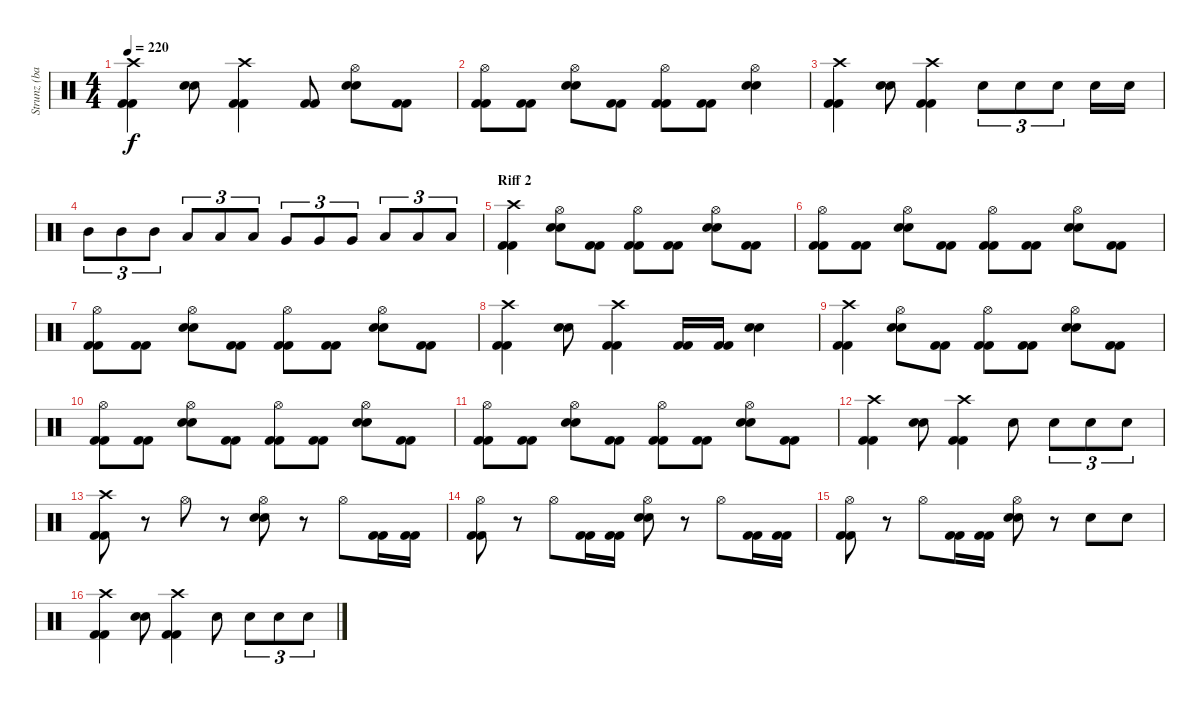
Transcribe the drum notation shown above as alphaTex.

\track ("Strunz (bateria)" "Strunz (ba") {instrument percussion}
\staff {score}
\articulation defaults
\ts (4 4)
\tempo 220
\clef neutral
\ks c
("Crash high (hit)" "Kick (hit) 2" "Kick (hit) 2").4{dy f} ("Snare (hit) 2" "Snare (hit) 2").8 ("Crash high (hit)" "Kick (hit) 2" "Kick (hit) 2").4 ("Kick (hit) 2" "Kick (hit) 2").8 ("Hi-Hat (open)" "Snare (hit) 2" "Snare (hit) 2").8 ("Kick (hit) 2" "Kick (hit) 2").8 |
("Hi-Hat (open)" "Kick (hit) 2" "Kick (hit) 2").8 ("Kick (hit) 2" "Kick (hit) 2").8 ("Hi-Hat (open)" "Snare (hit) 2" "Snare (hit) 2").8 ("Kick (hit) 2" "Kick (hit) 2").8 ("Hi-Hat (open)" "Kick (hit) 2" "Kick (hit) 2").8 ("Kick (hit) 2" "Kick (hit) 2").8 ("Hi-Hat (open)" "Snare (hit) 2" "Snare (hit) 2").4 |
("Crash high (hit)" "Kick (hit) 2" "Kick (hit) 2").4 ("Snare (hit) 2" "Snare (hit) 2").8 ("Crash high (hit)" "Kick (hit) 2" "Kick (hit) 2").4 "Snare (hit) 2".8{tu (3 2)} "Snare (hit) 2".8{tu (3 2)} "Snare (hit) 2".8{tu (3 2)} "Snare (hit) 2".16 "Snare (hit) 2".16 |
"Mid Tom (hit)".8{tu (3 2)} "Mid Tom (hit)".8{tu (3 2)} "Mid Tom (hit)".8{tu (3 2)} "Low Tom (hit)".8{tu (3 2)} "Low Tom (hit)".8{tu (3 2)} "Low Tom (hit)".8{tu (3 2)} "Very Low Tom (hit)".8{tu (3 2)} "Very Low Tom (hit)".8{tu (3 2)} "Very Low Tom (hit)".8{tu (3 2)} "Low Floor Tom (hit)".8{tu (3 2)} "Low Floor Tom (hit)".8{tu (3 2)} "Low Floor Tom (hit)".8{tu (3 2)} |
\section ("" "Riff 2")
("Crash high (hit)" "Kick (hit) 2" "Kick (hit) 2").4 ("Hi-Hat (open)" "Snare (hit) 2" "Snare (hit) 2").8 ("Kick (hit) 2" "Kick (hit) 2").8 ("Hi-Hat (open)" "Kick (hit) 2" "Kick (hit) 2").8 ("Kick (hit) 2" "Kick (hit) 2").8 ("Hi-Hat (open)" "Snare (hit) 2" "Snare (hit) 2").8 ("Kick (hit) 2" "Kick (hit) 2").8 |
("Hi-Hat (open)" "Kick (hit) 2" "Kick (hit) 2").8 ("Kick (hit) 2" "Kick (hit) 2").8 ("Hi-Hat (open)" "Snare (hit) 2" "Snare (hit) 2").8 ("Kick (hit) 2" "Kick (hit) 2").8 ("Hi-Hat (open)" "Kick (hit) 2" "Kick (hit) 2").8 ("Kick (hit) 2" "Kick (hit) 2").8 ("Hi-Hat (open)" "Snare (hit) 2" "Snare (hit) 2").8 ("Kick (hit) 2" "Kick (hit) 2").8 |
("Hi-Hat (open)" "Kick (hit) 2" "Kick (hit) 2").8 ("Kick (hit) 2" "Kick (hit) 2").8 ("Hi-Hat (open)" "Snare (hit) 2" "Snare (hit) 2").8 ("Kick (hit) 2" "Kick (hit) 2").8 ("Hi-Hat (open)" "Kick (hit) 2" "Kick (hit) 2").8 ("Kick (hit) 2" "Kick (hit) 2").8 ("Hi-Hat (open)" "Snare (hit) 2" "Snare (hit) 2").8 ("Kick (hit) 2" "Kick (hit) 2").8 |
("Crash high (hit)" "Kick (hit) 2" "Kick (hit) 2").4 ("Snare (hit) 2" "Snare (hit) 2").8 ("Crash high (hit)" "Kick (hit) 2" "Kick (hit) 2").4 ("Kick (hit) 2" "Kick (hit) 2").16 ("Kick (hit) 2" "Kick (hit) 2").16 ("Snare (hit) 2" "Snare (hit) 2").4 |
("Crash high (hit)" "Kick (hit) 2" "Kick (hit) 2").4 ("Hi-Hat (open)" "Snare (hit) 2" "Snare (hit) 2").8 ("Kick (hit) 2" "Kick (hit) 2").8 ("Hi-Hat (open)" "Kick (hit) 2" "Kick (hit) 2").8 ("Kick (hit) 2" "Kick (hit) 2").8 ("Hi-Hat (open)" "Snare (hit) 2" "Snare (hit) 2").8 ("Kick (hit) 2" "Kick (hit) 2").8 |
("Hi-Hat (open)" "Kick (hit) 2" "Kick (hit) 2").8 ("Kick (hit) 2" "Kick (hit) 2").8 ("Hi-Hat (open)" "Snare (hit) 2" "Snare (hit) 2").8 ("Kick (hit) 2" "Kick (hit) 2").8 ("Hi-Hat (open)" "Kick (hit) 2" "Kick (hit) 2").8 ("Kick (hit) 2" "Kick (hit) 2").8 ("Hi-Hat (open)" "Snare (hit) 2" "Snare (hit) 2").8 ("Kick (hit) 2" "Kick (hit) 2").8 |
("Hi-Hat (open)" "Kick (hit) 2" "Kick (hit) 2").8 ("Kick (hit) 2" "Kick (hit) 2").8 ("Hi-Hat (open)" "Snare (hit) 2" "Snare (hit) 2").8 ("Kick (hit) 2" "Kick (hit) 2").8 ("Hi-Hat (open)" "Kick (hit) 2" "Kick (hit) 2").8 ("Kick (hit) 2" "Kick (hit) 2").8 ("Hi-Hat (open)" "Snare (hit) 2" "Snare (hit) 2").8 ("Kick (hit) 2" "Kick (hit) 2").8 |
("Crash high (hit)" "Kick (hit) 2" "Kick (hit) 2").4 ("Snare (hit) 2" "Snare (hit) 2").8 ("Crash high (hit)" "Kick (hit) 2" "Kick (hit) 2").4 "Electric Snare (hit)".8 "Electric Snare (hit)".8{tu (3 2)} "Electric Snare (hit)".8{tu (3 2)} "Electric Snare (hit)".8{tu (3 2)} |
("Crash high (hit)" "Kick (hit) 2" "Kick (hit) 2").8 r.8 "Hi-Hat (open)".8 r.8 ("Hi-Hat (open)" "Snare (hit) 2" "Snare (hit) 2").8 r.8 "Hi-Hat (open)".8 ("Kick (hit) 2" "Kick (hit) 2").16 ("Kick (hit) 2" "Kick (hit) 2").16 |
("Hi-Hat (open)" "Kick (hit) 2" "Kick (hit) 2").8 r.8 "Hi-Hat (open)".8 ("Kick (hit) 2" "Kick (hit) 2").16 ("Kick (hit) 2" "Kick (hit) 2").16 ("Hi-Hat (open)" "Snare (hit) 2" "Snare (hit) 2").8 r.8 "Hi-Hat (open)".8 ("Kick (hit) 2" "Kick (hit) 2").16 ("Kick (hit) 2" "Kick (hit) 2").16 |
("Hi-Hat (open)" "Kick (hit) 2" "Kick (hit) 2").8 r.8 "Hi-Hat (open)".8 ("Kick (hit) 2" "Kick (hit) 2").16 ("Kick (hit) 2" "Kick (hit) 2").16 ("Hi-Hat (open)" "Snare (hit) 2" "Snare (hit) 2").8 r.8 "Electric Snare (hit)".8 "Electric Snare (hit)".8 |
("Crash high (hit)" "Kick (hit) 2" "Kick (hit) 2").4 ("Snare (hit) 2" "Snare (hit) 2").8 ("Crash high (hit)" "Kick (hit) 2" "Kick (hit) 2").4 "Electric Snare (hit)".8 "Electric Snare (hit)".8{tu (3 2)} "Electric Snare (hit)".8{tu (3 2)} "Electric Snare (hit)".8{tu (3 2)}
